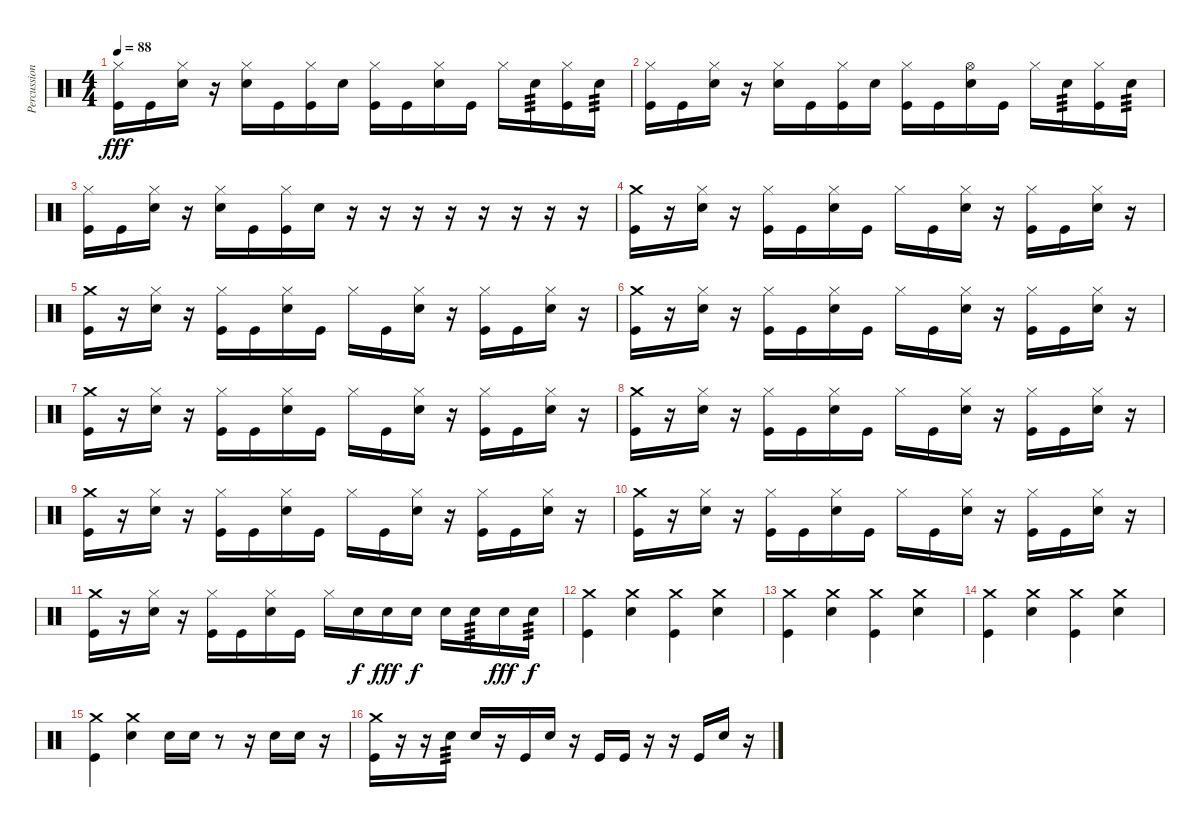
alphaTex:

\track ("Percussions" "Percussion") {instrument percussion}
\staff {score}
\articulation defaults
\ts (4 4)
\tempo 88
\clef neutral
\ks c
("Hi-Hat (closed)" "Kick (hit)").16{dy fff} "Kick (hit)".16 ("Hi-Hat (closed)" "Snare (hit) 2").16 r.16 ("Hi-Hat (closed)" "Snare (hit) 2").16 "Kick (hit)".16 ("Hi-Hat (closed)" "Kick (hit)").16 "Snare (hit) 2".16 ("Hi-Hat (closed)" "Kick (hit)").16 "Kick (hit)".16 ("Hi-Hat (closed)" "Snare (hit) 2").16 "Kick (hit)".16 "Hi-Hat (closed)".16 "Snare (hit) 2".16{tp 3} ("Hi-Hat (closed)" "Kick (hit)").16 "Snare (hit) 2".16{tp 3} |
("Hi-Hat (closed)" "Kick (hit)").16 "Kick (hit)".16 ("Hi-Hat (closed)" "Snare (hit) 2").16 r.16 ("Hi-Hat (closed)" "Snare (hit) 2").16 "Kick (hit)".16 ("Hi-Hat (closed)" "Kick (hit)").16 "Snare (hit) 2".16 ("Hi-Hat (closed)" "Kick (hit)").16 "Kick (hit)".16 ("Hi-Hat (open)" "Snare (hit) 2").16 "Kick (hit)".16 "Hi-Hat (closed)".16 "Snare (hit) 2".16{tp 3} ("Hi-Hat (closed)" "Kick (hit)").16 "Snare (hit) 2".16{tp 3} |
("Hi-Hat (closed)" "Kick (hit)").16 "Kick (hit)".16 ("Hi-Hat (closed)" "Snare (hit) 2").16 r.16 ("Hi-Hat (closed)" "Snare (hit) 2").16 "Kick (hit)".16 ("Hi-Hat (closed)" "Kick (hit)").16 "Snare (hit) 2".16 r.16 r.16 r.16 r.16 r.16 r.16 r.16 r.16 |
("Crash medium (hit)" "Kick (hit)").16 r.16 ("Hi-Hat (closed)" "Snare (hit) 2").16 r.16 ("Hi-Hat (closed)" "Kick (hit)").16 "Kick (hit)".16 ("Hi-Hat (closed)" "Snare (hit) 2").16 "Kick (hit)".16 "Hi-Hat (closed)".16 "Kick (hit)".16 ("Hi-Hat (closed)" "Snare (hit) 2").16 r.16 ("Hi-Hat (closed)" "Kick (hit)").16 "Kick (hit)".16 ("Hi-Hat (closed)" "Snare (hit) 2").16 r.16 |
("Crash medium (hit)" "Kick (hit)").16 r.16 ("Hi-Hat (closed)" "Snare (hit) 2").16 r.16 ("Hi-Hat (closed)" "Kick (hit)").16 "Kick (hit)".16 ("Hi-Hat (closed)" "Snare (hit) 2").16 "Kick (hit)".16 "Hi-Hat (closed)".16 "Kick (hit)".16 ("Hi-Hat (closed)" "Snare (hit) 2").16 r.16 ("Hi-Hat (closed)" "Kick (hit)").16 "Kick (hit)".16 ("Hi-Hat (closed)" "Snare (hit) 2").16 r.16 |
("Crash medium (hit)" "Kick (hit)").16 r.16 ("Hi-Hat (closed)" "Snare (hit) 2").16 r.16 ("Hi-Hat (closed)" "Kick (hit)").16 "Kick (hit)".16 ("Hi-Hat (closed)" "Snare (hit) 2").16 "Kick (hit)".16 "Hi-Hat (closed)".16 "Kick (hit)".16 ("Hi-Hat (closed)" "Snare (hit) 2").16 r.16 ("Hi-Hat (closed)" "Kick (hit)").16 "Kick (hit)".16 ("Hi-Hat (closed)" "Snare (hit) 2").16 r.16 |
("Crash medium (hit)" "Kick (hit)").16 r.16 ("Hi-Hat (closed)" "Snare (hit) 2").16 r.16 ("Hi-Hat (closed)" "Kick (hit)").16 "Kick (hit)".16 ("Hi-Hat (closed)" "Snare (hit) 2").16 "Kick (hit)".16 "Hi-Hat (closed)".16 "Kick (hit)".16 ("Hi-Hat (closed)" "Snare (hit) 2").16 r.16 ("Hi-Hat (closed)" "Kick (hit)").16 "Kick (hit)".16 ("Hi-Hat (closed)" "Snare (hit) 2").16 r.16 |
("Crash medium (hit)" "Kick (hit)").16 r.16 ("Hi-Hat (closed)" "Snare (hit) 2").16 r.16 ("Hi-Hat (closed)" "Kick (hit)").16 "Kick (hit)".16 ("Hi-Hat (closed)" "Snare (hit) 2").16 "Kick (hit)".16 "Hi-Hat (closed)".16 "Kick (hit)".16 ("Hi-Hat (closed)" "Snare (hit) 2").16 r.16 ("Hi-Hat (closed)" "Kick (hit)").16 "Kick (hit)".16 ("Hi-Hat (closed)" "Snare (hit) 2").16 r.16 |
("Crash medium (hit)" "Kick (hit)").16 r.16 ("Hi-Hat (closed)" "Snare (hit) 2").16 r.16 ("Hi-Hat (closed)" "Kick (hit)").16 "Kick (hit)".16 ("Hi-Hat (closed)" "Snare (hit) 2").16 "Kick (hit)".16 "Hi-Hat (closed)".16 "Kick (hit)".16 ("Hi-Hat (closed)" "Snare (hit) 2").16 r.16 ("Hi-Hat (closed)" "Kick (hit)").16 "Kick (hit)".16 ("Hi-Hat (closed)" "Snare (hit) 2").16 r.16 |
("Crash medium (hit)" "Kick (hit)").16 r.16 ("Hi-Hat (closed)" "Snare (hit) 2").16 r.16 ("Hi-Hat (closed)" "Kick (hit)").16 "Kick (hit)".16 ("Hi-Hat (closed)" "Snare (hit) 2").16 "Kick (hit)".16 "Hi-Hat (closed)".16 "Kick (hit)".16 ("Hi-Hat (closed)" "Snare (hit) 2").16 r.16 ("Hi-Hat (closed)" "Kick (hit)").16 "Kick (hit)".16 ("Hi-Hat (closed)" "Snare (hit) 2").16 r.16 |
("Crash medium (hit)" "Kick (hit)").16 r.16 ("Hi-Hat (closed)" "Snare (hit) 2").16 r.16 ("Hi-Hat (closed)" "Kick (hit)").16 "Kick (hit)".16 ("Hi-Hat (closed)" "Snare (hit) 2").16 "Kick (hit)".16 "Hi-Hat (closed)".16 "Snare (hit) 2".16{dy f} "Snare (hit) 2".16{dy fff} "Snare (hit) 2".16{dy f} "Snare (hit) 2".16 "Snare (hit) 2".16{tp 3} "Snare (hit) 2".16{dy fff} "Snare (hit) 2".16{tp 3 dy f} |
("Crash medium (hit)" "Kick (hit)").4 ("Crash medium (hit)" "Snare (hit) 2").4 ("Crash medium (hit)" "Kick (hit)").4 ("Crash medium (hit)" "Snare (hit) 2").4 |
("Crash medium (hit)" "Kick (hit)").4 ("Crash medium (hit)" "Snare (hit) 2").4 ("Crash medium (hit)" "Kick (hit)").4 ("Crash medium (hit)" "Snare (hit) 2").4 |
("Crash medium (hit)" "Kick (hit)").4 ("Crash medium (hit)" "Snare (hit) 2").4 ("Crash medium (hit)" "Kick (hit)").4 ("Crash medium (hit)" "Snare (hit) 2").4 |
("Crash medium (hit)" "Kick (hit)").4 ("Crash medium (hit)" "Snare (hit) 2").4 "Snare (hit) 2".16 "Snare (hit) 2".16 r.8 r.16 "Snare (hit) 2".16 "Snare (hit) 2".16 r.16 |
("Crash medium (hit)" "Kick (hit)").16 r.16 r.16 "Snare (hit) 2".16{tp 3} "Snare (hit) 2".16 r.16 "Kick (hit)".16 "Snare (hit) 2".16 r.16 "Kick (hit)".16 "Kick (hit)".16 r.16 r.16 "Kick (hit)".16 "Snare (hit) 2".16 r.16
